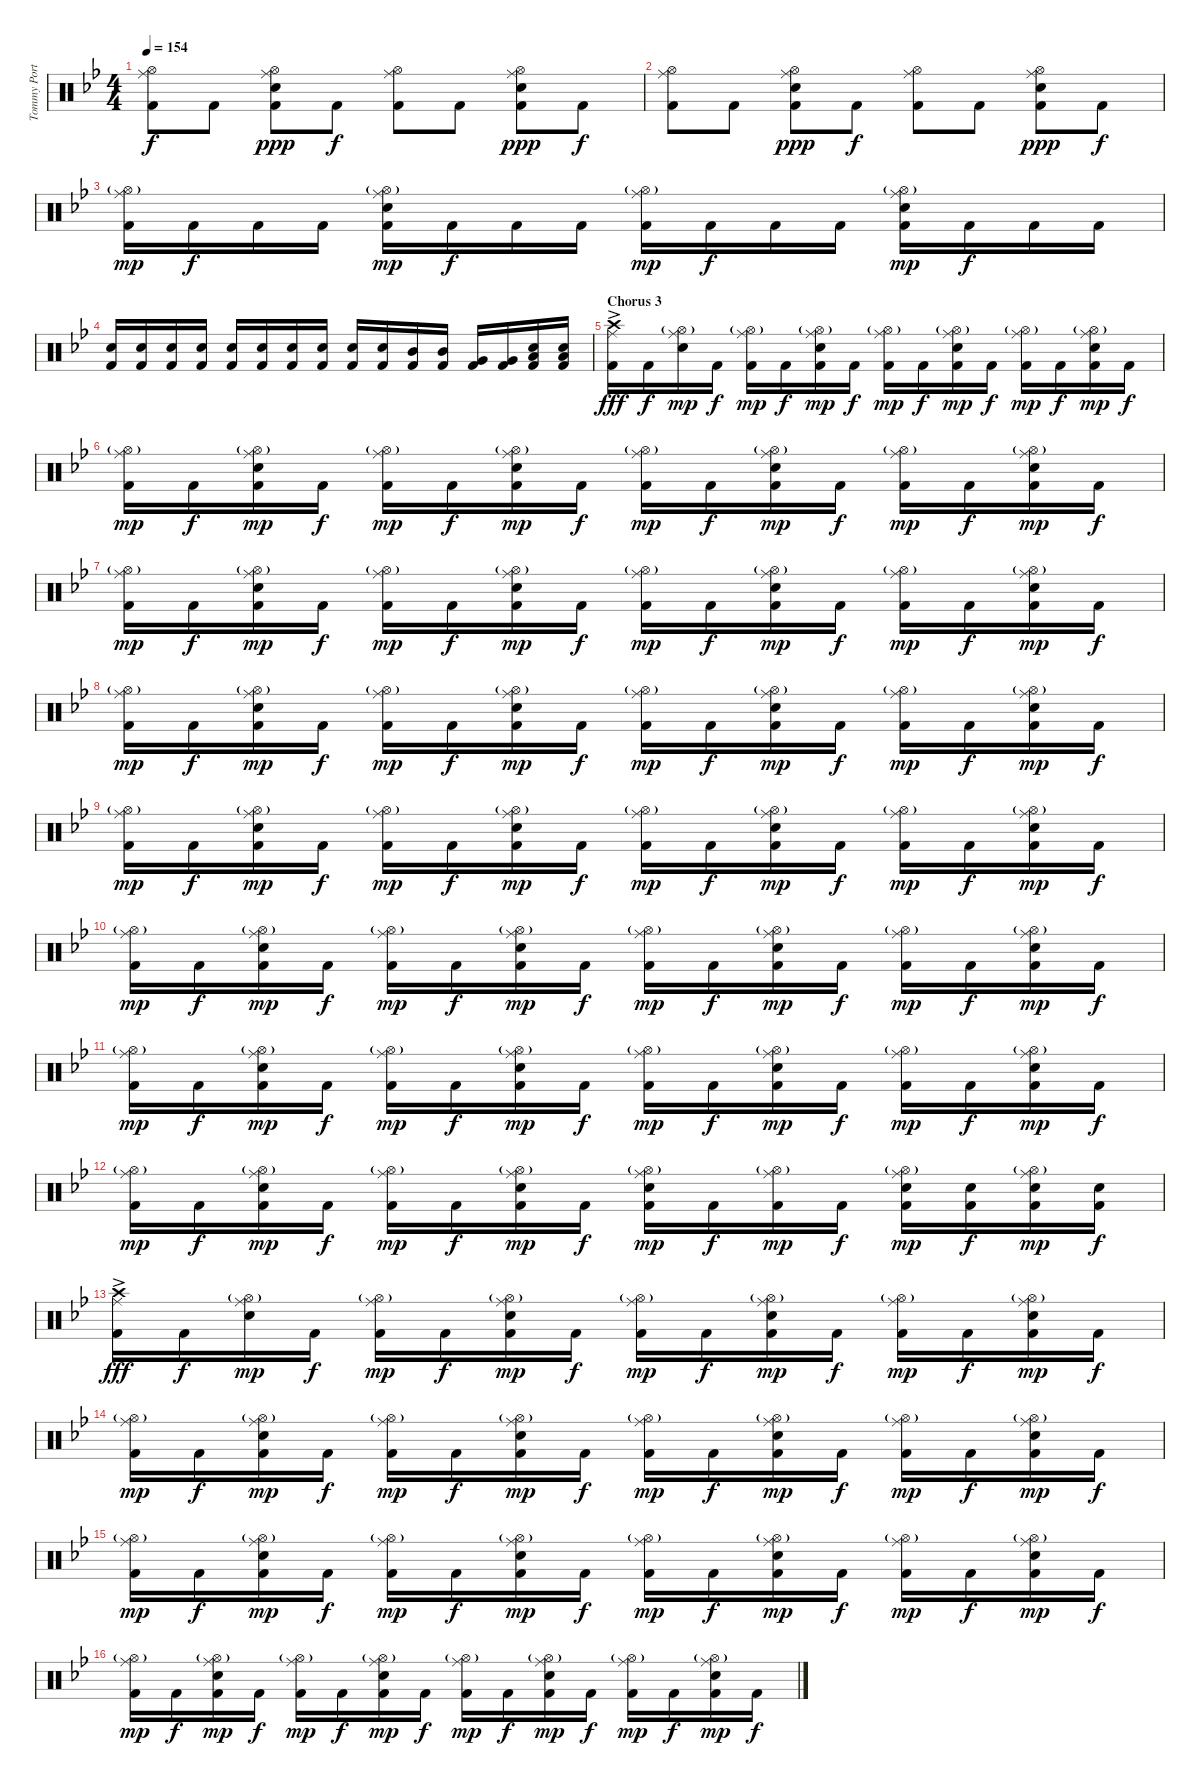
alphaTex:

\track ("Tommy Portimo" "Tommy Port") {instrument percussion}
\staff {score}
\articulation defaults
\ts (4 4)
\tempo 154
\clef neutral
\ks gminor
("Hi-Hat (open)" "Ride (middle)" "Kick (hit) 2").8{dy f} "Kick (hit) 2".8 ("Hi-Hat (open)" "Ride (middle)" "Electric Snare (hit)" "Kick (hit) 2").8{dy ppp} "Kick (hit) 2".8{dy f} ("Hi-Hat (open)" "Ride (middle)" "Kick (hit) 2").8 "Kick (hit) 2".8 ("Hi-Hat (open)" "Ride (middle)" "Electric Snare (hit)" "Kick (hit) 2").8{dy ppp} "Kick (hit) 2".8{dy f} |
("Hi-Hat (open)" "Ride (middle)" "Kick (hit) 2").8 "Kick (hit) 2".8 ("Hi-Hat (open)" "Ride (middle)" "Electric Snare (hit)" "Kick (hit) 2").8{dy ppp} "Kick (hit) 2".8{dy f} ("Hi-Hat (open)" "Ride (middle)" "Kick (hit) 2").8 "Kick (hit) 2".8 ("Hi-Hat (open)" "Ride (middle)" "Electric Snare (hit)" "Kick (hit) 2").8{dy ppp} "Kick (hit) 2".8{dy f} |
("Hi-Hat (open)"{g} "Ride (middle)" "Kick (hit) 2").16{dy mp} "Kick (hit) 2".16{dy f} "Kick (hit) 2".16 "Kick (hit) 2".16 ("Hi-Hat (open)"{g} "Ride (middle)" "Electric Snare (hit)" "Kick (hit) 2").16{dy mp} "Kick (hit) 2".16{dy f} "Kick (hit) 2".16 "Kick (hit) 2".16 ("Hi-Hat (open)"{g} "Ride (middle)" "Kick (hit) 2").16{dy mp} "Kick (hit) 2".16{dy f} "Kick (hit) 2".16 "Kick (hit) 2".16 ("Hi-Hat (open)"{g} "Ride (middle)" "Electric Snare (hit)" "Kick (hit) 2").16{dy mp} "Kick (hit) 2".16{dy f} "Kick (hit) 2".16 "Kick (hit) 2".16 |
("Electric Snare (hit)" "Kick (hit) 2").16 ("Electric Snare (hit)" "Kick (hit) 2").16 ("Electric Snare (hit)" "Kick (hit) 2").16 ("Electric Snare (hit)" "Kick (hit) 2").16 ("Electric Snare (hit)" "Kick (hit) 2").16 ("Electric Snare (hit)" "Kick (hit) 2").16 ("Electric Snare (hit)" "Kick (hit) 2").16 ("Electric Snare (hit)" "Kick (hit) 2").16 ("Electric Snare (hit)" "Kick (hit) 2").16 ("Electric Snare (hit)" "Kick (hit) 2").16 ("Mid Tom (hit)" "Kick (hit) 2").16 ("Mid Tom (hit)" "Kick (hit) 2").16 ("Very Low Tom (hit)" "Kick (hit) 2").16 ("Very Low Tom (hit)" "Kick (hit) 2").16 ("Low Floor Tom (hit)" "Electric Snare (hit)" "Kick (hit) 2").16 ("Low Floor Tom (hit)" "Electric Snare (hit)" "Kick (hit) 2").16 |
\section ("" "Chorus 3")
("Crash high (hit)"{ac} "Ride (middle)" "Kick (hit) 2").16{dy fff} "Kick (hit) 2".16{dy f} ("Hi-Hat (open)"{g} "Ride (middle)" "Electric Snare (hit)").16{dy mp} "Kick (hit) 2".16{dy f} ("Hi-Hat (open)"{g} "Ride (middle)" "Kick (hit) 2").16{dy mp} "Kick (hit) 2".16{dy f} ("Hi-Hat (open)"{g} "Ride (middle)" "Electric Snare (hit)" "Kick (hit) 2").16{dy mp} "Kick (hit) 2".16{dy f} ("Hi-Hat (open)"{g} "Ride (middle)" "Kick (hit) 2").16{dy mp} "Kick (hit) 2".16{dy f} ("Hi-Hat (open)"{g} "Ride (middle)" "Electric Snare (hit)" "Kick (hit) 2").16{dy mp} "Kick (hit) 2".16{dy f} ("Hi-Hat (open)"{g} "Ride (middle)" "Kick (hit) 2").16{dy mp} "Kick (hit) 2".16{dy f} ("Hi-Hat (open)"{g} "Ride (middle)" "Electric Snare (hit)" "Kick (hit) 2").16{dy mp} "Kick (hit) 2".16{dy f} |
("Hi-Hat (open)"{g} "Ride (middle)" "Kick (hit) 2").16{dy mp} "Kick (hit) 2".16{dy f} ("Hi-Hat (open)"{g} "Ride (middle)" "Electric Snare (hit)" "Kick (hit) 2").16{dy mp} "Kick (hit) 2".16{dy f} ("Hi-Hat (open)"{g} "Ride (middle)" "Kick (hit) 2").16{dy mp} "Kick (hit) 2".16{dy f} ("Hi-Hat (open)"{g} "Ride (middle)" "Electric Snare (hit)" "Kick (hit) 2").16{dy mp} "Kick (hit) 2".16{dy f} ("Hi-Hat (open)"{g} "Ride (middle)" "Kick (hit) 2").16{dy mp} "Kick (hit) 2".16{dy f} ("Hi-Hat (open)"{g} "Ride (middle)" "Electric Snare (hit)" "Kick (hit) 2").16{dy mp} "Kick (hit) 2".16{dy f} ("Hi-Hat (open)"{g} "Ride (middle)" "Kick (hit) 2").16{dy mp} "Kick (hit) 2".16{dy f} ("Hi-Hat (open)"{g} "Ride (middle)" "Electric Snare (hit)" "Kick (hit) 2").16{dy mp} "Kick (hit) 2".16{dy f} |
("Hi-Hat (open)"{g} "Ride (middle)" "Kick (hit) 2").16{dy mp} "Kick (hit) 2".16{dy f} ("Hi-Hat (open)"{g} "Ride (middle)" "Electric Snare (hit)" "Kick (hit) 2").16{dy mp} "Kick (hit) 2".16{dy f} ("Hi-Hat (open)"{g} "Ride (middle)" "Kick (hit) 2").16{dy mp} "Kick (hit) 2".16{dy f} ("Hi-Hat (open)"{g} "Ride (middle)" "Electric Snare (hit)" "Kick (hit) 2").16{dy mp} "Kick (hit) 2".16{dy f} ("Hi-Hat (open)"{g} "Ride (middle)" "Kick (hit) 2").16{dy mp} "Kick (hit) 2".16{dy f} ("Hi-Hat (open)"{g} "Ride (middle)" "Electric Snare (hit)" "Kick (hit) 2").16{dy mp} "Kick (hit) 2".16{dy f} ("Hi-Hat (open)"{g} "Ride (middle)" "Kick (hit) 2").16{dy mp} "Kick (hit) 2".16{dy f} ("Hi-Hat (open)"{g} "Ride (middle)" "Electric Snare (hit)" "Kick (hit) 2").16{dy mp} "Kick (hit) 2".16{dy f} |
("Hi-Hat (open)"{g} "Ride (middle)" "Kick (hit) 2").16{dy mp} "Kick (hit) 2".16{dy f} ("Hi-Hat (open)"{g} "Ride (middle)" "Electric Snare (hit)" "Kick (hit) 2").16{dy mp} "Kick (hit) 2".16{dy f} ("Hi-Hat (open)"{g} "Ride (middle)" "Kick (hit) 2").16{dy mp} "Kick (hit) 2".16{dy f} ("Hi-Hat (open)"{g} "Ride (middle)" "Electric Snare (hit)" "Kick (hit) 2").16{dy mp} "Kick (hit) 2".16{dy f} ("Hi-Hat (open)"{g} "Ride (middle)" "Kick (hit) 2").16{dy mp} "Kick (hit) 2".16{dy f} ("Hi-Hat (open)"{g} "Ride (middle)" "Electric Snare (hit)" "Kick (hit) 2").16{dy mp} "Kick (hit) 2".16{dy f} ("Hi-Hat (open)"{g} "Ride (middle)" "Kick (hit) 2").16{dy mp} "Kick (hit) 2".16{dy f} ("Hi-Hat (open)"{g} "Ride (middle)" "Electric Snare (hit)" "Kick (hit) 2").16{dy mp} "Kick (hit) 2".16{dy f} |
("Hi-Hat (open)"{g} "Ride (middle)" "Kick (hit) 2").16{dy mp} "Kick (hit) 2".16{dy f} ("Hi-Hat (open)"{g} "Ride (middle)" "Electric Snare (hit)" "Kick (hit) 2").16{dy mp} "Kick (hit) 2".16{dy f} ("Hi-Hat (open)"{g} "Ride (middle)" "Kick (hit) 2").16{dy mp} "Kick (hit) 2".16{dy f} ("Hi-Hat (open)"{g} "Ride (middle)" "Electric Snare (hit)" "Kick (hit) 2").16{dy mp} "Kick (hit) 2".16{dy f} ("Hi-Hat (open)"{g} "Ride (middle)" "Kick (hit) 2").16{dy mp} "Kick (hit) 2".16{dy f} ("Hi-Hat (open)"{g} "Ride (middle)" "Electric Snare (hit)" "Kick (hit) 2").16{dy mp} "Kick (hit) 2".16{dy f} ("Hi-Hat (open)"{g} "Ride (middle)" "Kick (hit) 2").16{dy mp} "Kick (hit) 2".16{dy f} ("Hi-Hat (open)"{g} "Ride (middle)" "Electric Snare (hit)" "Kick (hit) 2").16{dy mp} "Kick (hit) 2".16{dy f} |
("Hi-Hat (open)"{g} "Ride (middle)" "Kick (hit) 2").16{dy mp} "Kick (hit) 2".16{dy f} ("Hi-Hat (open)"{g} "Ride (middle)" "Electric Snare (hit)" "Kick (hit) 2").16{dy mp} "Kick (hit) 2".16{dy f} ("Hi-Hat (open)"{g} "Ride (middle)" "Kick (hit) 2").16{dy mp} "Kick (hit) 2".16{dy f} ("Hi-Hat (open)"{g} "Ride (middle)" "Electric Snare (hit)" "Kick (hit) 2").16{dy mp} "Kick (hit) 2".16{dy f} ("Hi-Hat (open)"{g} "Ride (middle)" "Kick (hit) 2").16{dy mp} "Kick (hit) 2".16{dy f} ("Hi-Hat (open)"{g} "Ride (middle)" "Electric Snare (hit)" "Kick (hit) 2").16{dy mp} "Kick (hit) 2".16{dy f} ("Hi-Hat (open)"{g} "Ride (middle)" "Kick (hit) 2").16{dy mp} "Kick (hit) 2".16{dy f} ("Hi-Hat (open)"{g} "Ride (middle)" "Electric Snare (hit)" "Kick (hit) 2").16{dy mp} "Kick (hit) 2".16{dy f} |
("Hi-Hat (open)"{g} "Ride (middle)" "Kick (hit) 2").16{dy mp} "Kick (hit) 2".16{dy f} ("Hi-Hat (open)"{g} "Ride (middle)" "Electric Snare (hit)" "Kick (hit) 2").16{dy mp} "Kick (hit) 2".16{dy f} ("Hi-Hat (open)"{g} "Ride (middle)" "Kick (hit) 2").16{dy mp} "Kick (hit) 2".16{dy f} ("Hi-Hat (open)"{g} "Ride (middle)" "Electric Snare (hit)" "Kick (hit) 2").16{dy mp} "Kick (hit) 2".16{dy f} ("Hi-Hat (open)"{g} "Ride (middle)" "Kick (hit) 2").16{dy mp} "Kick (hit) 2".16{dy f} ("Hi-Hat (open)"{g} "Ride (middle)" "Electric Snare (hit)" "Kick (hit) 2").16{dy mp} "Kick (hit) 2".16{dy f} ("Hi-Hat (open)"{g} "Ride (middle)" "Kick (hit) 2").16{dy mp} "Kick (hit) 2".16{dy f} ("Hi-Hat (open)"{g} "Ride (middle)" "Electric Snare (hit)" "Kick (hit) 2").16{dy mp} "Kick (hit) 2".16{dy f} |
("Hi-Hat (open)"{g} "Ride (middle)" "Kick (hit) 2").16{dy mp} "Kick (hit) 2".16{dy f} ("Hi-Hat (open)"{g} "Ride (middle)" "Electric Snare (hit)" "Kick (hit) 2").16{dy mp} "Kick (hit) 2".16{dy f} ("Hi-Hat (open)"{g} "Ride (middle)" "Kick (hit) 2").16{dy mp} "Kick (hit) 2".16{dy f} ("Hi-Hat (open)"{g} "Ride (middle)" "Electric Snare (hit)" "Kick (hit) 2").16{dy mp} "Kick (hit) 2".16{dy f} ("Hi-Hat (open)"{g} "Ride (middle)" "Electric Snare (hit)" "Kick (hit) 2").16{dy mp} "Kick (hit) 2".16{dy f} ("Hi-Hat (open)"{g} "Ride (middle)" "Kick (hit) 2").16{dy mp} "Kick (hit) 2".16{dy f} ("Hi-Hat (open)"{g} "Ride (middle)" "Electric Snare (hit)" "Kick (hit) 2").16{dy mp} ("Electric Snare (hit)" "Kick (hit) 2").16{dy f} ("Hi-Hat (open)"{g} "Ride (middle)" "Electric Snare (hit)" "Kick (hit) 2").16{dy mp} ("Electric Snare (hit)" "Kick (hit) 2").16{dy f} |
("Crash high (hit)"{ac} "Ride (middle)" "Kick (hit) 2").16{dy fff} "Kick (hit) 2".16{dy f} ("Hi-Hat (open)"{g} "Ride (middle)" "Electric Snare (hit)").16{dy mp} "Kick (hit) 2".16{dy f} ("Hi-Hat (open)"{g} "Ride (middle)" "Kick (hit) 2").16{dy mp} "Kick (hit) 2".16{dy f} ("Hi-Hat (open)"{g} "Ride (middle)" "Electric Snare (hit)" "Kick (hit) 2").16{dy mp} "Kick (hit) 2".16{dy f} ("Hi-Hat (open)"{g} "Ride (middle)" "Kick (hit) 2").16{dy mp} "Kick (hit) 2".16{dy f} ("Hi-Hat (open)"{g} "Ride (middle)" "Electric Snare (hit)" "Kick (hit) 2").16{dy mp} "Kick (hit) 2".16{dy f} ("Hi-Hat (open)"{g} "Ride (middle)" "Kick (hit) 2").16{dy mp} "Kick (hit) 2".16{dy f} ("Hi-Hat (open)"{g} "Ride (middle)" "Electric Snare (hit)" "Kick (hit) 2").16{dy mp} "Kick (hit) 2".16{dy f} |
("Hi-Hat (open)"{g} "Ride (middle)" "Kick (hit) 2").16{dy mp} "Kick (hit) 2".16{dy f} ("Hi-Hat (open)"{g} "Ride (middle)" "Electric Snare (hit)" "Kick (hit) 2").16{dy mp} "Kick (hit) 2".16{dy f} ("Hi-Hat (open)"{g} "Ride (middle)" "Kick (hit) 2").16{dy mp} "Kick (hit) 2".16{dy f} ("Hi-Hat (open)"{g} "Ride (middle)" "Electric Snare (hit)" "Kick (hit) 2").16{dy mp} "Kick (hit) 2".16{dy f} ("Hi-Hat (open)"{g} "Ride (middle)" "Kick (hit) 2").16{dy mp} "Kick (hit) 2".16{dy f} ("Hi-Hat (open)"{g} "Ride (middle)" "Electric Snare (hit)" "Kick (hit) 2").16{dy mp} "Kick (hit) 2".16{dy f} ("Hi-Hat (open)"{g} "Ride (middle)" "Kick (hit) 2").16{dy mp} "Kick (hit) 2".16{dy f} ("Hi-Hat (open)"{g} "Ride (middle)" "Electric Snare (hit)" "Kick (hit) 2").16{dy mp} "Kick (hit) 2".16{dy f} |
("Hi-Hat (open)"{g} "Ride (middle)" "Kick (hit) 2").16{dy mp} "Kick (hit) 2".16{dy f} ("Hi-Hat (open)"{g} "Ride (middle)" "Electric Snare (hit)" "Kick (hit) 2").16{dy mp} "Kick (hit) 2".16{dy f} ("Hi-Hat (open)"{g} "Ride (middle)" "Kick (hit) 2").16{dy mp} "Kick (hit) 2".16{dy f} ("Hi-Hat (open)"{g} "Ride (middle)" "Electric Snare (hit)" "Kick (hit) 2").16{dy mp} "Kick (hit) 2".16{dy f} ("Hi-Hat (open)"{g} "Ride (middle)" "Kick (hit) 2").16{dy mp} "Kick (hit) 2".16{dy f} ("Hi-Hat (open)"{g} "Ride (middle)" "Electric Snare (hit)" "Kick (hit) 2").16{dy mp} "Kick (hit) 2".16{dy f} ("Hi-Hat (open)"{g} "Ride (middle)" "Kick (hit) 2").16{dy mp} "Kick (hit) 2".16{dy f} ("Hi-Hat (open)"{g} "Ride (middle)" "Electric Snare (hit)" "Kick (hit) 2").16{dy mp} "Kick (hit) 2".16{dy f} |
("Hi-Hat (open)"{g} "Ride (middle)" "Kick (hit) 2").16{dy mp} "Kick (hit) 2".16{dy f} ("Hi-Hat (open)"{g} "Ride (middle)" "Electric Snare (hit)" "Kick (hit) 2").16{dy mp} "Kick (hit) 2".16{dy f} ("Hi-Hat (open)"{g} "Ride (middle)" "Kick (hit) 2").16{dy mp} "Kick (hit) 2".16{dy f} ("Hi-Hat (open)"{g} "Ride (middle)" "Electric Snare (hit)" "Kick (hit) 2").16{dy mp} "Kick (hit) 2".16{dy f} ("Hi-Hat (open)"{g} "Ride (middle)" "Kick (hit) 2").16{dy mp} "Kick (hit) 2".16{dy f} ("Hi-Hat (open)"{g} "Ride (middle)" "Electric Snare (hit)" "Kick (hit) 2").16{dy mp} "Kick (hit) 2".16{dy f} ("Hi-Hat (open)"{g} "Ride (middle)" "Kick (hit) 2").16{dy mp} "Kick (hit) 2".16{dy f} ("Hi-Hat (open)"{g} "Ride (middle)" "Electric Snare (hit)" "Kick (hit) 2").16{dy mp} "Kick (hit) 2".16{dy f}
